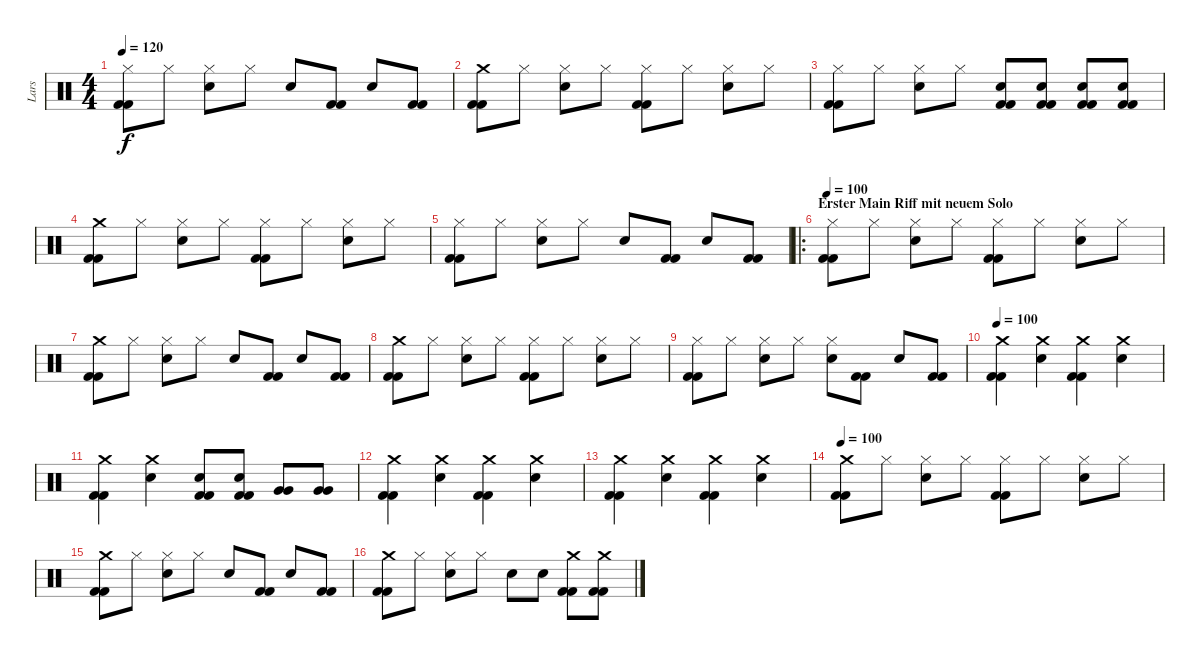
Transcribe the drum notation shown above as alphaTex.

\track ("Lars" "Lars") {instrument percussion}
\staff {score}
\articulation defaults
\ts (4 4)
\tempo 120
\clef neutral
\ks c
("Kick (hit) 2" "Kick (hit) 2" "Hi-Hat (closed)").8{dy f} "Hi-Hat (closed)".8 ("Hi-Hat (closed)" "Electric Snare (hit)").8 "Hi-Hat (closed)".8 "Electric Snare (hit)".8 ("Kick (hit) 2" "Kick (hit) 2").8 "Electric Snare (hit)".8 ("Kick (hit) 2" "Kick (hit) 2").8 |
("Kick (hit) 2" "Kick (hit) 2" "Crash medium (hit)").8 "Hi-Hat (closed)".8 ("Hi-Hat (closed)" "Electric Snare (hit)").8 "Hi-Hat (closed)".8 ("Hi-Hat (closed)" "Kick (hit) 2" "Kick (hit) 2").8 "Hi-Hat (closed)".8 ("Electric Snare (hit)" "Hi-Hat (closed)").8 "Hi-Hat (closed)".8 |
("Kick (hit) 2" "Kick (hit) 2" "Hi-Hat (closed)").8 "Hi-Hat (closed)".8 ("Hi-Hat (closed)" "Electric Snare (hit)").8 "Hi-Hat (closed)".8 ("Electric Snare (hit)" "Kick (hit) 2" "Kick (hit) 2").8 ("Electric Snare (hit)" "Kick (hit) 2" "Kick (hit) 2").8 ("Kick (hit) 2" "Kick (hit) 2" "Electric Snare (hit)").8 ("Electric Snare (hit)" "Kick (hit) 2" "Kick (hit) 2").8 |
("Kick (hit) 2" "Kick (hit) 2" "Crash medium (hit)").8 "Hi-Hat (closed)".8 ("Hi-Hat (closed)" "Electric Snare (hit)").8 "Hi-Hat (closed)".8 ("Hi-Hat (closed)" "Kick (hit) 2" "Kick (hit) 2").8 "Hi-Hat (closed)".8 ("Electric Snare (hit)" "Hi-Hat (closed)").8 "Hi-Hat (closed)".8 |
("Kick (hit) 2" "Kick (hit) 2" "Hi-Hat (closed)").8 "Hi-Hat (closed)".8 ("Hi-Hat (closed)" "Electric Snare (hit)").8 "Hi-Hat (closed)".8 "Electric Snare (hit)".8 ("Kick (hit) 2" "Kick (hit) 2").8 "Electric Snare (hit)".8 ("Kick (hit) 2" "Kick (hit) 2").8 |
\ro
\section ("" "Erster Main Riff mit neuem Solo")
\tempo 100
("Hi-Hat (closed)" "Kick (hit) 2" "Kick (hit) 2").8 "Hi-Hat (closed)".8 ("Electric Snare (hit)" "Hi-Hat (closed)").8 "Hi-Hat (closed)".8 ("Kick (hit) 2" "Kick (hit) 2" "Hi-Hat (closed)").8 "Hi-Hat (closed)".8 ("Hi-Hat (closed)" "Electric Snare (hit)").8 "Hi-Hat (closed)".8 |
("Crash medium (hit)" "Kick (hit) 2" "Kick (hit) 2").8 "Hi-Hat (closed)".8 ("Electric Snare (hit)" "Hi-Hat (closed)").8 "Hi-Hat (closed)".8 "Electric Snare (hit)".8 ("Kick (hit) 2" "Kick (hit) 2").8 "Electric Snare (hit)".8 ("Kick (hit) 2" "Kick (hit) 2").8 |
("Crash medium (hit)" "Kick (hit) 2" "Kick (hit) 2").8 "Hi-Hat (closed)".8 ("Electric Snare (hit)" "Hi-Hat (closed)").8 "Hi-Hat (closed)".8 ("Kick (hit) 2" "Kick (hit) 2" "Hi-Hat (closed)").8 "Hi-Hat (closed)".8 ("Hi-Hat (closed)" "Electric Snare (hit)").8 "Hi-Hat (closed)".8 |
("Hi-Hat (closed)" "Kick (hit) 2" "Kick (hit) 2").8 "Hi-Hat (closed)".8 ("Electric Snare (hit)" "Hi-Hat (closed)").8 "Hi-Hat (closed)".8 ("Hi-Hat (closed)" "Electric Snare (hit)").8 ("Kick (hit) 2" "Kick (hit) 2").8 "Electric Snare (hit)".8 ("Kick (hit) 2" "Kick (hit) 2").8 |
\tempo 100
("Crash medium (hit)" "Kick (hit) 2" "Kick (hit) 2").4 ("Electric Snare (hit)" "Crash medium (hit)").4 ("Crash medium (hit)" "Kick (hit) 2" "Kick (hit) 2").4 ("Electric Snare (hit)" "Crash medium (hit)").4 |
("Crash medium (hit)" "Kick (hit) 2" "Kick (hit) 2").4 ("Electric Snare (hit)" "Crash medium (hit)").4 ("Electric Snare (hit)" "Kick (hit) 2" "Kick (hit) 2").8 ("Electric Snare (hit)" "Kick (hit) 2" "Kick (hit) 2").8 ("Very Low Tom (hit)" "Very Low Tom (hit)").8 ("Very Low Tom (hit)" "Very Low Tom (hit)").8 |
("Crash medium (hit)" "Kick (hit) 2" "Kick (hit) 2").4 ("Electric Snare (hit)" "Crash medium (hit)").4 ("Crash medium (hit)" "Kick (hit) 2" "Kick (hit) 2").4 ("Electric Snare (hit)" "Crash medium (hit)").4 |
("Crash medium (hit)" "Kick (hit) 2" "Kick (hit) 2").4 ("Electric Snare (hit)" "Crash medium (hit)").4 ("Crash medium (hit)" "Kick (hit) 2" "Kick (hit) 2").4 ("Electric Snare (hit)" "Crash medium (hit)").4 |
\tempo 100
("Crash medium (hit)" "Kick (hit) 2" "Kick (hit) 2").8 "Hi-Hat (closed)".8 ("Electric Snare (hit)" "Hi-Hat (closed)").8 "Hi-Hat (closed)".8 ("Kick (hit) 2" "Kick (hit) 2" "Hi-Hat (closed)").8 "Hi-Hat (closed)".8 ("Hi-Hat (closed)" "Electric Snare (hit)").8 "Hi-Hat (closed)".8 |
("Crash medium (hit)" "Kick (hit) 2" "Kick (hit) 2").8 "Hi-Hat (closed)".8 ("Electric Snare (hit)" "Hi-Hat (closed)").8 "Hi-Hat (closed)".8 "Electric Snare (hit)".8 ("Kick (hit) 2" "Kick (hit) 2").8 "Electric Snare (hit)".8 ("Kick (hit) 2" "Kick (hit) 2").8 |
("Crash medium (hit)" "Kick (hit) 2" "Kick (hit) 2").8 "Hi-Hat (closed)".8 ("Electric Snare (hit)" "Hi-Hat (closed)").8 "Hi-Hat (closed)".8 "Electric Snare (hit)".8 "Electric Snare (hit)".8 ("Crash medium (hit)" "Kick (hit) 2" "Kick (hit) 2").8 ("Kick (hit) 2" "Kick (hit) 2" "Crash medium (hit)").8
